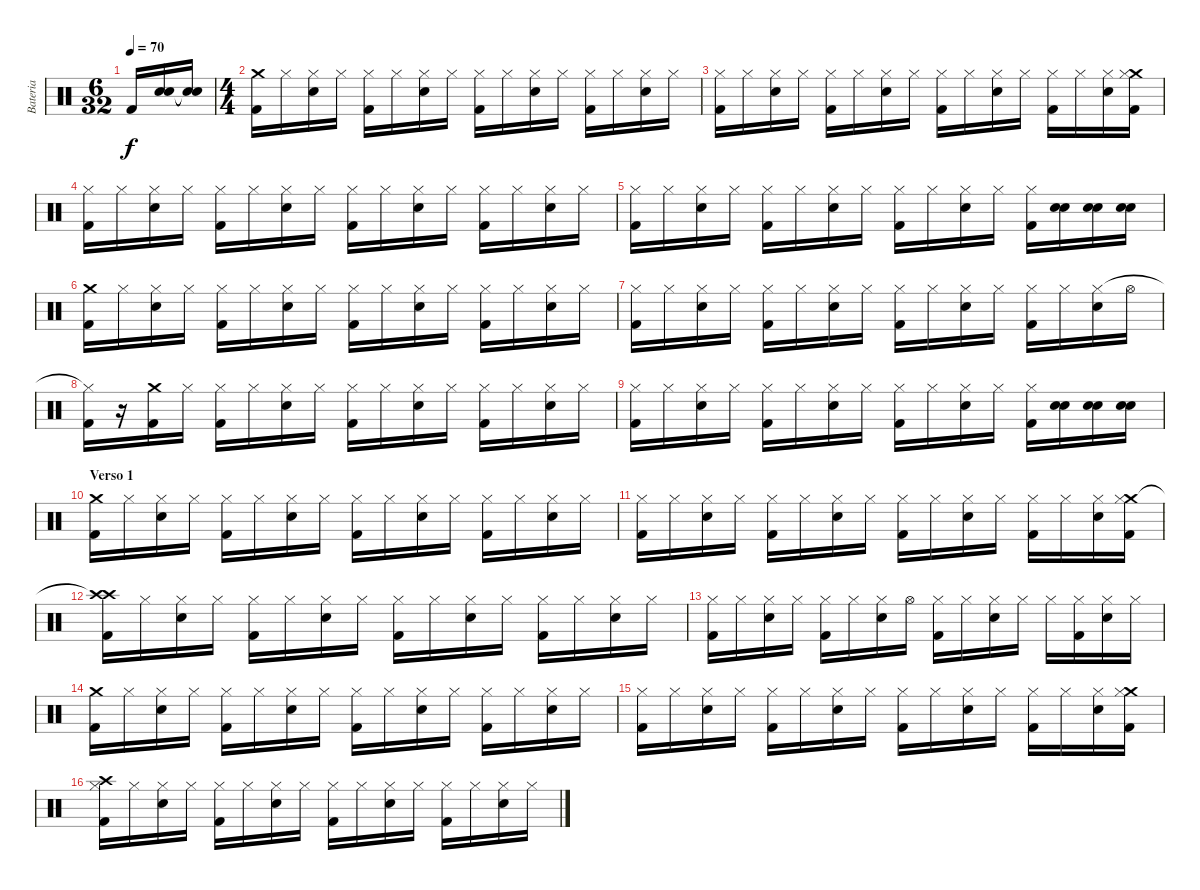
\track ("Bateria" "Bateria") {instrument percussion}
\staff {score}
\articulation defaults
\ts (6 32)
\tempo 70
\clef neutral
\ks c "Kick (hit) 2".16{dy f}
("Snare (hit) 2" "Snare (hit) 2").16 ("Snare (hit)"{t} "Snare (hit)"{t}).16 |
\ts (4 4)
("Kick (hit) 2" "Crash medium (hit)").16 "Hi-Hat (closed)".16 ("Snare (hit) 2" "Hi-Hat (closed)").16 "Hi-Hat (closed)".16 ("Kick (hit) 2" "Hi-Hat (closed)").16 "Hi-Hat (closed)".16 ("Snare (hit) 2" "Hi-Hat (closed)").16 "Hi-Hat (closed)".16 ("Kick (hit) 2" "Hi-Hat (closed)").16 "Hi-Hat (closed)".16 ("Snare (hit) 2" "Hi-Hat (closed)").16 "Hi-Hat (closed)".16 ("Kick (hit) 2" "Hi-Hat (closed)").16 "Hi-Hat (closed)".16 ("Snare (hit) 2" "Hi-Hat (closed)").16 "Hi-Hat (closed)".16 |
("Kick (hit) 2" "Hi-Hat (closed)").16 "Hi-Hat (closed)".16 ("Snare (hit) 2" "Hi-Hat (closed)").16 "Hi-Hat (closed)".16 ("Kick (hit) 2" "Hi-Hat (closed)").16 "Hi-Hat (closed)".16 ("Snare (hit) 2" "Hi-Hat (closed)").16 "Hi-Hat (closed)".16 ("Kick (hit) 2" "Hi-Hat (closed)").16 "Hi-Hat (closed)".16 ("Snare (hit) 2" "Hi-Hat (closed)").16 "Hi-Hat (closed)".16 ("Kick (hit) 2" "Hi-Hat (closed)").16 "Hi-Hat (closed)".16 ("Snare (hit) 2" "Hi-Hat (closed)").16 ("Kick (hit) 2" "Crash medium (hit)" "Hi-Hat (closed)").16 |
("Kick (hit) 2" "Hi-Hat (closed)").16 "Hi-Hat (closed)".16 ("Snare (hit) 2" "Hi-Hat (closed)").16 "Hi-Hat (closed)".16 ("Kick (hit) 2" "Hi-Hat (closed)").16 "Hi-Hat (closed)".16 ("Snare (hit) 2" "Hi-Hat (closed)").16 "Hi-Hat (closed)".16 ("Kick (hit) 2" "Hi-Hat (closed)").16 "Hi-Hat (closed)".16 ("Snare (hit) 2" "Hi-Hat (closed)").16 "Hi-Hat (closed)".16 ("Kick (hit) 2" "Hi-Hat (closed)").16 "Hi-Hat (closed)".16 ("Snare (hit) 2" "Hi-Hat (closed)").16 "Hi-Hat (closed)".16 |
("Kick (hit) 2" "Hi-Hat (closed)").16 "Hi-Hat (closed)".16 ("Snare (hit) 2" "Hi-Hat (closed)").16 "Hi-Hat (closed)".16 ("Kick (hit) 2" "Hi-Hat (closed)").16 "Hi-Hat (closed)".16 ("Snare (hit) 2" "Hi-Hat (closed)").16 "Hi-Hat (closed)".16 ("Kick (hit) 2" "Hi-Hat (closed)").16 "Hi-Hat (closed)".16 ("Snare (hit) 2" "Hi-Hat (closed)").16 "Hi-Hat (closed)".16 ("Kick (hit) 2" "Hi-Hat (closed)").16 ("Snare (hit) 2" "Snare (hit) 2").16 ("Snare (hit) 2" "Snare (hit) 2").16 ("Snare (hit) 2" "Snare (hit) 2").16 |
("Kick (hit) 2" "Crash medium (hit)").16 "Hi-Hat (closed)".16 ("Snare (hit) 2" "Hi-Hat (closed)").16 "Hi-Hat (closed)".16 ("Kick (hit) 2" "Hi-Hat (closed)").16 "Hi-Hat (closed)".16 ("Snare (hit) 2" "Hi-Hat (closed)").16 "Hi-Hat (closed)".16 ("Kick (hit) 2" "Hi-Hat (closed)").16 "Hi-Hat (closed)".16 ("Snare (hit) 2" "Hi-Hat (closed)").16 "Hi-Hat (closed)".16 ("Kick (hit) 2" "Hi-Hat (closed)").16 "Hi-Hat (closed)".16 ("Snare (hit) 2" "Hi-Hat (closed)").16 "Hi-Hat (closed)".16 |
("Kick (hit) 2" "Hi-Hat (closed)").16 "Hi-Hat (closed)".16 ("Snare (hit) 2" "Hi-Hat (closed)").16 "Hi-Hat (closed)".16 ("Kick (hit) 2" "Hi-Hat (closed)").16 "Hi-Hat (closed)".16 ("Snare (hit) 2" "Hi-Hat (closed)").16 "Hi-Hat (closed)".16 ("Kick (hit) 2" "Hi-Hat (closed)").16 "Hi-Hat (closed)".16 ("Snare (hit) 2" "Hi-Hat (closed)").16 "Hi-Hat (closed)".16 ("Kick (hit) 2" "Hi-Hat (closed)").16 "Hi-Hat (closed)".16 ("Snare (hit) 2" "Hi-Hat (closed)").16 "Hi-Hat (open)".16 |
("Kick (hit) 2" "Hi-Hat (closed)"{t}).16 r.16 ("Kick (hit) 2" "Crash medium (hit)").16 "Hi-Hat (closed)".16 ("Kick (hit) 2" "Hi-Hat (closed)").16 "Hi-Hat (closed)".16 ("Snare (hit) 2" "Hi-Hat (closed)").16 "Hi-Hat (closed)".16 ("Kick (hit) 2" "Hi-Hat (closed)").16 "Hi-Hat (closed)".16 ("Snare (hit) 2" "Hi-Hat (closed)").16 "Hi-Hat (closed)".16 ("Kick (hit) 2" "Hi-Hat (closed)").16 "Hi-Hat (closed)".16 ("Snare (hit) 2" "Hi-Hat (closed)").16 "Hi-Hat (closed)".16 |
("Kick (hit) 2" "Hi-Hat (closed)").16 "Hi-Hat (closed)".16 ("Snare (hit) 2" "Hi-Hat (closed)").16 "Hi-Hat (closed)".16 ("Kick (hit) 2" "Hi-Hat (closed)").16 "Hi-Hat (closed)".16 ("Snare (hit) 2" "Hi-Hat (closed)").16 "Hi-Hat (closed)".16 ("Kick (hit) 2" "Hi-Hat (closed)").16 "Hi-Hat (closed)".16 ("Snare (hit) 2" "Hi-Hat (closed)").16 "Hi-Hat (closed)".16 ("Kick (hit) 2" "Hi-Hat (closed)").16 ("Snare (hit) 2" "Snare (hit) 2").16 ("Snare (hit) 2" "Snare (hit) 2").16 ("Snare (hit) 2" "Snare (hit) 2").16 |
\section ("" "Verso 1")
("Kick (hit) 2" "Crash medium (hit)").16 "Hi-Hat (closed)".16 ("Snare (hit) 2" "Hi-Hat (closed)").16 "Hi-Hat (closed)".16 ("Kick (hit) 2" "Hi-Hat (closed)").16 "Hi-Hat (closed)".16 ("Snare (hit) 2" "Hi-Hat (closed)").16 "Hi-Hat (closed)".16 ("Kick (hit) 2" "Hi-Hat (closed)").16 "Hi-Hat (closed)".16 ("Snare (hit) 2" "Hi-Hat (closed)").16 "Hi-Hat (closed)".16 ("Kick (hit) 2" "Hi-Hat (closed)").16 "Hi-Hat (closed)".16 ("Snare (hit) 2" "Hi-Hat (closed)").16 "Hi-Hat (closed)".16 |
("Kick (hit) 2" "Hi-Hat (closed)").16 "Hi-Hat (closed)".16 ("Snare (hit) 2" "Hi-Hat (closed)").16 "Hi-Hat (closed)".16 ("Kick (hit) 2" "Hi-Hat (closed)").16 "Hi-Hat (closed)".16 ("Snare (hit) 2" "Hi-Hat (closed)").16 "Hi-Hat (closed)".16 ("Kick (hit) 2" "Hi-Hat (closed)").16 "Hi-Hat (closed)".16 ("Snare (hit) 2" "Hi-Hat (closed)").16 "Hi-Hat (closed)".16 ("Kick (hit) 2" "Hi-Hat (closed)").16 "Hi-Hat (closed)".16 ("Snare (hit) 2" "Hi-Hat (closed)").16 ("Kick (hit) 2" "Crash medium (hit)" "Hi-Hat (closed)").16 |
("Kick (hit) 2" "Crash high (hit)"{t} "Crash high (hit)").16 "Hi-Hat (closed)".16 ("Snare (hit) 2" "Hi-Hat (closed)").16 "Hi-Hat (closed)".16 ("Kick (hit) 2" "Hi-Hat (closed)").16 "Hi-Hat (closed)".16 ("Snare (hit) 2" "Hi-Hat (closed)").16 "Hi-Hat (closed)".16 ("Kick (hit) 2" "Hi-Hat (closed)").16 "Hi-Hat (closed)".16 ("Snare (hit) 2" "Hi-Hat (closed)").16 "Hi-Hat (closed)".16 ("Kick (hit) 2" "Hi-Hat (closed)").16 "Hi-Hat (closed)".16 ("Snare (hit) 2" "Hi-Hat (closed)").16 "Hi-Hat (closed)".16 |
("Kick (hit) 2" "Hi-Hat (closed)").16 "Hi-Hat (closed)".16 ("Snare (hit) 2" "Hi-Hat (closed)").16 "Hi-Hat (closed)".16 ("Kick (hit) 2" "Hi-Hat (closed)").16 "Hi-Hat (closed)".16 ("Snare (hit) 2" "Hi-Hat (closed)").16 "Hi-Hat (open)".16 ("Kick (hit) 2" "Hi-Hat (closed)").16 "Hi-Hat (closed)".16 ("Snare (hit) 2" "Hi-Hat (closed)").16 "Hi-Hat (closed)".16 "Hi-Hat (closed)".16 ("Kick (hit) 2" "Hi-Hat (closed)").16 ("Snare (hit) 2" "Hi-Hat (closed)").16 "Hi-Hat (closed)".16 |
("Kick (hit) 2" "Crash medium (hit)").16 "Hi-Hat (closed)".16 ("Snare (hit) 2" "Hi-Hat (closed)").16 "Hi-Hat (closed)".16 ("Kick (hit) 2" "Hi-Hat (closed)").16 "Hi-Hat (closed)".16 ("Snare (hit) 2" "Hi-Hat (closed)").16 "Hi-Hat (closed)".16 ("Kick (hit) 2" "Hi-Hat (closed)").16 "Hi-Hat (closed)".16 ("Snare (hit) 2" "Hi-Hat (closed)").16 "Hi-Hat (closed)".16 ("Kick (hit) 2" "Hi-Hat (closed)").16 "Hi-Hat (closed)".16 ("Snare (hit) 2" "Hi-Hat (closed)").16 "Hi-Hat (closed)".16 |
("Kick (hit) 2" "Hi-Hat (closed)").16 "Hi-Hat (closed)".16 ("Snare (hit) 2" "Hi-Hat (closed)").16 "Hi-Hat (closed)".16 ("Kick (hit) 2" "Hi-Hat (closed)").16 "Hi-Hat (closed)".16 ("Snare (hit) 2" "Hi-Hat (closed)").16 "Hi-Hat (closed)".16 ("Kick (hit) 2" "Hi-Hat (closed)").16 "Hi-Hat (closed)".16 ("Snare (hit) 2" "Hi-Hat (closed)").16 "Hi-Hat (closed)".16 ("Kick (hit) 2" "Hi-Hat (closed)").16 "Hi-Hat (closed)".16 ("Snare (hit) 2" "Hi-Hat (closed)").16 ("Kick (hit) 2" "Crash medium (hit)" "Hi-Hat (closed)").16 |
("Kick (hit) 2" "Crash high (hit)" "Hi-Hat (closed)").16 "Hi-Hat (closed)".16 ("Snare (hit) 2" "Hi-Hat (closed)").16 "Hi-Hat (closed)".16 ("Kick (hit) 2" "Hi-Hat (closed)").16 "Hi-Hat (closed)".16 ("Snare (hit) 2" "Hi-Hat (closed)").16 "Hi-Hat (closed)".16 ("Kick (hit) 2" "Hi-Hat (closed)").16 "Hi-Hat (closed)".16 ("Snare (hit) 2" "Hi-Hat (closed)").16 "Hi-Hat (closed)".16 ("Kick (hit) 2" "Hi-Hat (closed)").16 "Hi-Hat (closed)".16 ("Snare (hit) 2" "Hi-Hat (closed)").16 "Hi-Hat (closed)".16
